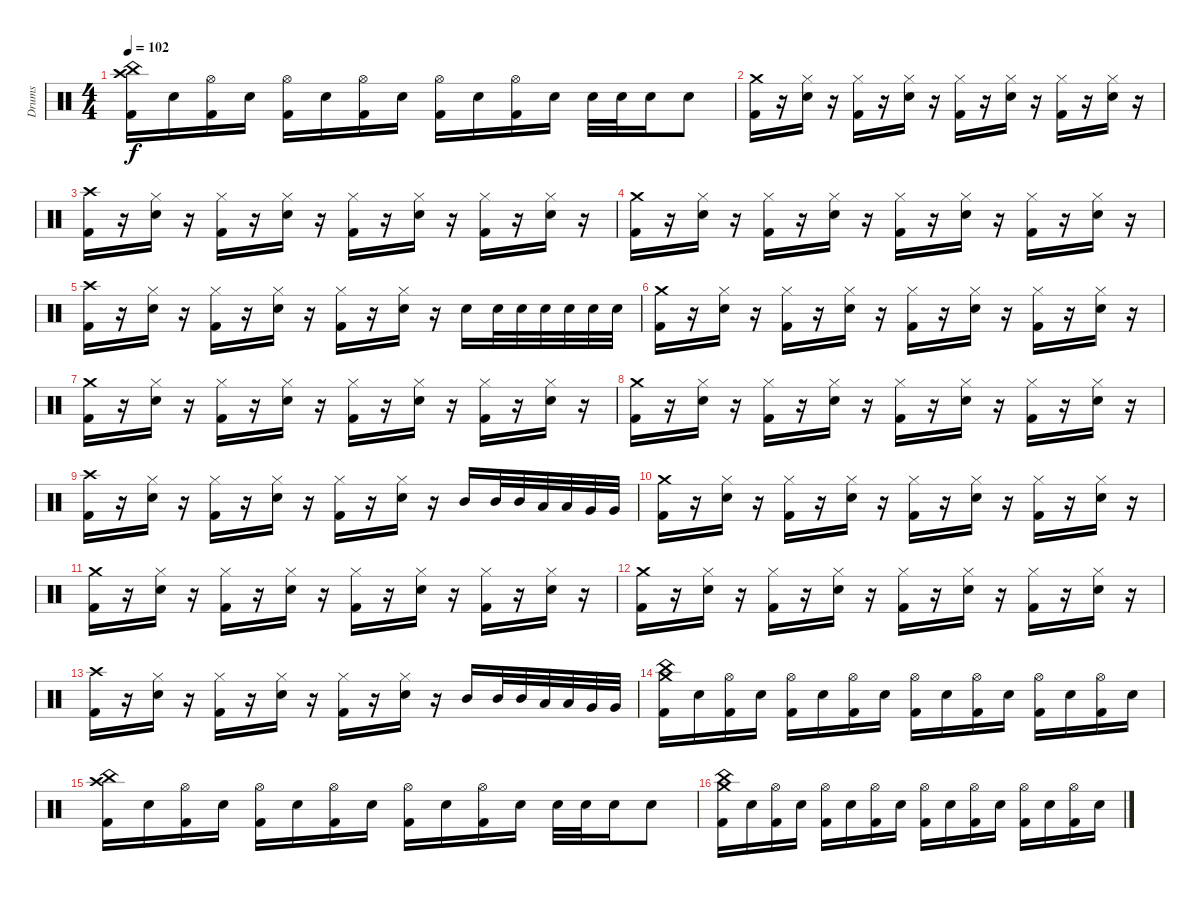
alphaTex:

\track ("Drums" "Drums") {instrument percussion}
\staff {score}
\articulation defaults
\ts (4 4)
\tempo 102
\clef neutral
\ks c
("China (hit)" "Crash high (hit)" "Kick (hit) 2").16{dy f} "Electric Snare (hit)".16 ("Hi-Hat (open)" "Kick (hit) 2").16 "Electric Snare (hit)".16 ("Hi-Hat (open)" "Kick (hit) 2").16 "Electric Snare (hit)".16 ("Hi-Hat (open)" "Kick (hit) 2").16 "Electric Snare (hit)".16 ("Hi-Hat (open)" "Kick (hit) 2").16 "Electric Snare (hit)".16 ("Hi-Hat (open)" "Kick (hit) 2").16 "Electric Snare (hit)".16 "Electric Snare (hit)".32 "Electric Snare (hit)".32 "Electric Snare (hit)".16 "Electric Snare (hit)".8 |
\section ("" "")
("Crash medium (hit)" "Kick (hit) 2").16 r.16 ("Hi-Hat (closed)" "Electric Snare (hit)").16 r.16 ("Hi-Hat (closed)" "Kick (hit) 2").16 r.16 ("Hi-Hat (closed)" "Electric Snare (hit)").16 r.16 ("Hi-Hat (closed)" "Kick (hit) 2").16 r.16 ("Hi-Hat (closed)" "Electric Snare (hit)").16 r.16 ("Hi-Hat (closed)" "Kick (hit) 2").16 r.16 ("Hi-Hat (closed)" "Electric Snare (hit)").16 r.16 |
("Crash high (hit)" "Kick (hit) 2").16 r.16 ("Hi-Hat (closed)" "Electric Snare (hit)").16 r.16 ("Hi-Hat (closed)" "Kick (hit) 2").16 r.16 ("Hi-Hat (closed)" "Electric Snare (hit)").16 r.16 ("Hi-Hat (closed)" "Kick (hit) 2").16 r.16 ("Hi-Hat (closed)" "Electric Snare (hit)").16 r.16 ("Hi-Hat (closed)" "Kick (hit) 2").16 r.16 ("Hi-Hat (closed)" "Electric Snare (hit)").16 r.16 |
("Crash medium (hit)" "Kick (hit) 2").16 r.16 ("Hi-Hat (closed)" "Electric Snare (hit)").16 r.16 ("Hi-Hat (closed)" "Kick (hit) 2").16 r.16 ("Hi-Hat (closed)" "Electric Snare (hit)").16 r.16 ("Hi-Hat (closed)" "Kick (hit) 2").16 r.16 ("Hi-Hat (closed)" "Electric Snare (hit)").16 r.16 ("Hi-Hat (closed)" "Kick (hit) 2").16 r.16 ("Hi-Hat (closed)" "Electric Snare (hit)").16 r.16 |
("Crash high (hit)" "Kick (hit) 2").16 r.16 ("Hi-Hat (closed)" "Electric Snare (hit)").16 r.16 ("Hi-Hat (closed)" "Kick (hit) 2").16 r.16 ("Hi-Hat (closed)" "Electric Snare (hit)").16 r.16 ("Hi-Hat (closed)" "Kick (hit) 2").16 r.16 ("Hi-Hat (closed)" "Electric Snare (hit)").16 r.16 "Electric Snare (hit)".16 "Electric Snare (hit)".32 "Electric Snare (hit)".32 "Electric Snare (hit)".32 "Electric Snare (hit)".32 "Electric Snare (hit)".32 "Electric Snare (hit)".32 |
("Crash medium (hit)" "Kick (hit) 2").16 r.16 ("Hi-Hat (closed)" "Electric Snare (hit)").16 r.16 ("Hi-Hat (closed)" "Kick (hit) 2").16 r.16 ("Hi-Hat (closed)" "Electric Snare (hit)").16 r.16 ("Hi-Hat (closed)" "Kick (hit) 2").16 r.16 ("Hi-Hat (closed)" "Electric Snare (hit)").16 r.16 ("Hi-Hat (closed)" "Kick (hit) 2").16 r.16 ("Hi-Hat (closed)" "Electric Snare (hit)").16 r.16 |
("Crash medium (hit)" "Kick (hit) 2").16 r.16 ("Hi-Hat (closed)" "Electric Snare (hit)").16 r.16 ("Hi-Hat (closed)" "Kick (hit) 2").16 r.16 ("Hi-Hat (closed)" "Electric Snare (hit)").16 r.16 ("Hi-Hat (closed)" "Kick (hit) 2").16 r.16 ("Hi-Hat (closed)" "Electric Snare (hit)").16 r.16 ("Hi-Hat (closed)" "Kick (hit) 2").16 r.16 ("Hi-Hat (closed)" "Electric Snare (hit)").16 r.16 |
("Crash medium (hit)" "Kick (hit) 2").16 r.16 ("Hi-Hat (closed)" "Electric Snare (hit)").16 r.16 ("Hi-Hat (closed)" "Kick (hit) 2").16 r.16 ("Hi-Hat (closed)" "Electric Snare (hit)").16 r.16 ("Hi-Hat (closed)" "Kick (hit) 2").16 r.16 ("Hi-Hat (closed)" "Electric Snare (hit)").16 r.16 ("Hi-Hat (closed)" "Kick (hit) 2").16 r.16 ("Hi-Hat (closed)" "Electric Snare (hit)").16 r.16 |
("Crash high (hit)" "Kick (hit) 2").16 r.16 ("Hi-Hat (closed)" "Electric Snare (hit)").16 r.16 ("Hi-Hat (closed)" "Kick (hit) 2").16 r.16 ("Hi-Hat (closed)" "Electric Snare (hit)").16 r.16 ("Hi-Hat (closed)" "Kick (hit) 2").16 r.16 ("Hi-Hat (closed)" "Electric Snare (hit)").16 r.16 "Mid Tom (hit)".16 "Mid Tom (hit)".32 "Mid Tom (hit)".32 "Low Tom (hit)".32 "Low Tom (hit)".32 "Very Low Tom (hit)".32 "Very Low Tom (hit)".32 |
("Crash medium (hit)" "Kick (hit) 2").16 r.16 ("Hi-Hat (closed)" "Electric Snare (hit)").16 r.16 ("Hi-Hat (closed)" "Kick (hit) 2").16 r.16 ("Hi-Hat (closed)" "Electric Snare (hit)").16 r.16 ("Hi-Hat (closed)" "Kick (hit) 2").16 r.16 ("Hi-Hat (closed)" "Electric Snare (hit)").16 r.16 ("Hi-Hat (closed)" "Kick (hit) 2").16 r.16 ("Hi-Hat (closed)" "Electric Snare (hit)").16 r.16 |
("Crash medium (hit)" "Kick (hit) 2").16 r.16 ("Hi-Hat (closed)" "Electric Snare (hit)").16 r.16 ("Hi-Hat (closed)" "Kick (hit) 2").16 r.16 ("Hi-Hat (closed)" "Electric Snare (hit)").16 r.16 ("Hi-Hat (closed)" "Kick (hit) 2").16 r.16 ("Hi-Hat (closed)" "Electric Snare (hit)").16 r.16 ("Hi-Hat (closed)" "Kick (hit) 2").16 r.16 ("Hi-Hat (closed)" "Electric Snare (hit)").16 r.16 |
("Crash medium (hit)" "Kick (hit) 2").16 r.16 ("Hi-Hat (closed)" "Electric Snare (hit)").16 r.16 ("Hi-Hat (closed)" "Kick (hit) 2").16 r.16 ("Hi-Hat (closed)" "Electric Snare (hit)").16 r.16 ("Hi-Hat (closed)" "Kick (hit) 2").16 r.16 ("Hi-Hat (closed)" "Electric Snare (hit)").16 r.16 ("Hi-Hat (closed)" "Kick (hit) 2").16 r.16 ("Hi-Hat (closed)" "Electric Snare (hit)").16 r.16 |
("Crash high (hit)" "Kick (hit) 2").16 r.16 ("Hi-Hat (closed)" "Electric Snare (hit)").16 r.16 ("Hi-Hat (closed)" "Kick (hit) 2").16 r.16 ("Hi-Hat (closed)" "Electric Snare (hit)").16 r.16 ("Hi-Hat (closed)" "Kick (hit) 2").16 r.16 ("Hi-Hat (closed)" "Electric Snare (hit)").16 r.16 "Mid Tom (hit)".16 "Mid Tom (hit)".32 "Mid Tom (hit)".32 "Low Tom (hit)".32 "Low Tom (hit)".32 "Very Low Tom (hit)".32 "Very Low Tom (hit)".32 |
\section ("" "")
("China (hit)" "Crash medium (hit)" "Kick (hit) 2").16 "Electric Snare (hit)".16 ("Hi-Hat (open)" "Kick (hit) 2").16 "Electric Snare (hit)".16 ("Hi-Hat (open)" "Kick (hit) 2").16 "Electric Snare (hit)".16 ("Hi-Hat (open)" "Kick (hit) 2").16 "Electric Snare (hit)".16 ("Hi-Hat (open)" "Kick (hit) 2").16 "Electric Snare (hit)".16 ("Hi-Hat (open)" "Kick (hit) 2").16 "Electric Snare (hit)".16 ("Hi-Hat (open)" "Kick (hit) 2").16 "Electric Snare (hit)".16 ("Hi-Hat (open)" "Kick (hit) 2").16 "Electric Snare (hit)".16 |
("China (hit)" "Crash high (hit)" "Kick (hit) 2").16 "Electric Snare (hit)".16 ("Hi-Hat (open)" "Kick (hit) 2").16 "Electric Snare (hit)".16 ("Hi-Hat (open)" "Kick (hit) 2").16 "Electric Snare (hit)".16 ("Hi-Hat (open)" "Kick (hit) 2").16 "Electric Snare (hit)".16 ("Hi-Hat (open)" "Kick (hit) 2").16 "Electric Snare (hit)".16 ("Hi-Hat (open)" "Kick (hit) 2").16 "Electric Snare (hit)".16 "Electric Snare (hit)".32 "Electric Snare (hit)".32 "Electric Snare (hit)".16 "Electric Snare (hit)".8 |
("China (hit)" "Crash medium (hit)" "Kick (hit) 2").16 "Electric Snare (hit)".16 ("Hi-Hat (open)" "Kick (hit) 2").16 "Electric Snare (hit)".16 ("Hi-Hat (open)" "Kick (hit) 2").16 "Electric Snare (hit)".16 ("Hi-Hat (open)" "Kick (hit) 2").16 "Electric Snare (hit)".16 ("Hi-Hat (open)" "Kick (hit) 2").16 "Electric Snare (hit)".16 ("Hi-Hat (open)" "Kick (hit) 2").16 "Electric Snare (hit)".16 ("Hi-Hat (open)" "Kick (hit) 2").16 "Electric Snare (hit)".16 ("Hi-Hat (open)" "Kick (hit) 2").16 "Electric Snare (hit)".16
